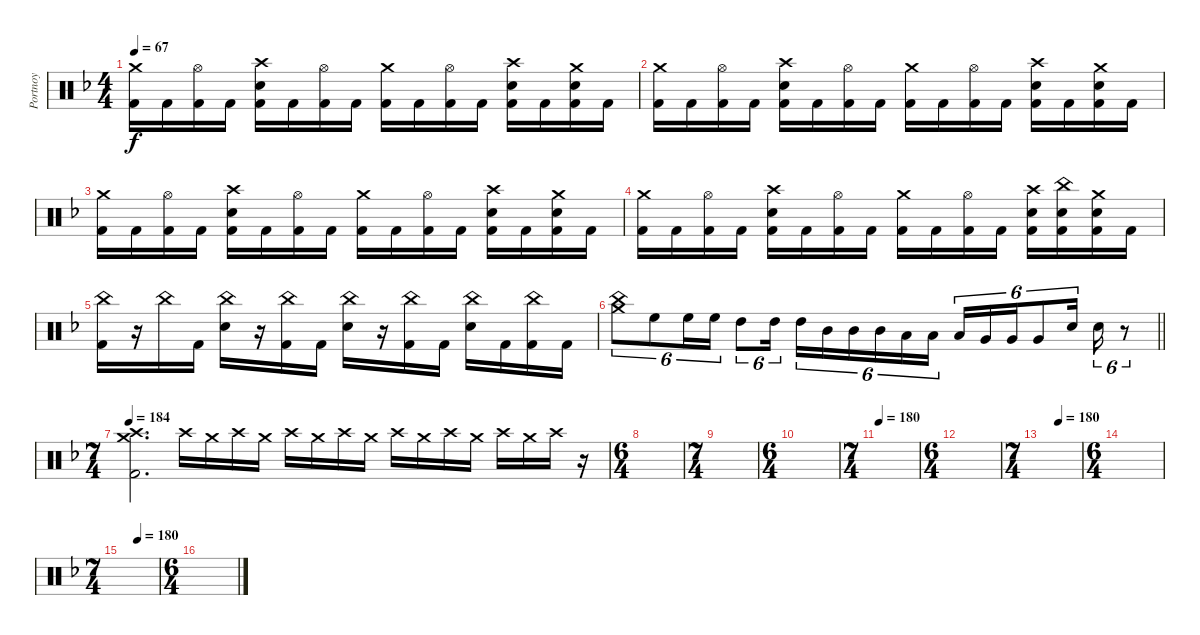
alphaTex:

\track ("Portnoy" "Portnoy") {instrument percussion}
\staff {score}
\articulation defaults
\ts (4 4)
\tempo 67
\clef neutral
\ks f
("Crash medium (hit)" "Kick (hit) 2").16{dy f} "Kick (hit) 2".16 ("Hi-Hat (open)" "Kick (hit) 2").16 "Kick (hit) 2".16 ("Crash high (hit)" "Electric Snare (hit)" "Kick (hit) 2").16 "Kick (hit) 2".16 ("Hi-Hat (open)" "Kick (hit) 2").16 "Kick (hit) 2".16 ("Crash medium (hit)" "Kick (hit) 2").16 "Kick (hit) 2".16 ("Hi-Hat (open)" "Kick (hit) 2").16 "Kick (hit) 2".16 ("Crash high (hit)" "Electric Snare (hit)" "Kick (hit) 2").16 "Kick (hit) 2".16 ("Crash medium (hit)" "Electric Snare (hit)" "Kick (hit) 2").16 "Kick (hit) 2".16 |
("Crash medium (hit)" "Kick (hit) 2").16 "Kick (hit) 2".16 ("Hi-Hat (open)" "Kick (hit) 2").16 "Kick (hit) 2".16 ("Crash high (hit)" "Electric Snare (hit)" "Kick (hit) 2").16 "Kick (hit) 2".16 ("Hi-Hat (open)" "Kick (hit) 2").16 "Kick (hit) 2".16 ("Crash medium (hit)" "Kick (hit) 2").16 "Kick (hit) 2".16 ("Hi-Hat (open)" "Kick (hit) 2").16 "Kick (hit) 2".16 ("Crash high (hit)" "Electric Snare (hit)" "Kick (hit) 2").16 "Kick (hit) 2".16 ("Crash medium (hit)" "Electric Snare (hit)" "Kick (hit) 2").16 "Kick (hit) 2".16 |
("Crash medium (hit)" "Kick (hit) 2").16 "Kick (hit) 2".16 ("Hi-Hat (open)" "Kick (hit) 2").16 "Kick (hit) 2".16 ("Crash high (hit)" "Electric Snare (hit)" "Kick (hit) 2").16 "Kick (hit) 2".16 ("Hi-Hat (open)" "Kick (hit) 2").16 "Kick (hit) 2".16 ("Crash medium (hit)" "Kick (hit) 2").16 "Kick (hit) 2".16 ("Hi-Hat (open)" "Kick (hit) 2").16 "Kick (hit) 2".16 ("Crash high (hit)" "Electric Snare (hit)" "Kick (hit) 2").16 "Kick (hit) 2".16 ("Crash medium (hit)" "Electric Snare (hit)" "Kick (hit) 2").16 "Kick (hit) 2".16 |
("Crash medium (hit)" "Kick (hit) 2").16 "Kick (hit) 2".16 ("Hi-Hat (open)" "Kick (hit) 2").16 "Kick (hit) 2".16 ("Crash high (hit)" "Electric Snare (hit)" "Kick (hit) 2").16 "Kick (hit) 2".16 ("Hi-Hat (open)" "Kick (hit) 2").16 "Kick (hit) 2".16 ("Crash medium (hit)" "Kick (hit) 2").16 "Kick (hit) 2".16 ("Hi-Hat (open)" "Kick (hit) 2").16 "Kick (hit) 2".16 ("Crash high (hit)" "Electric Snare (hit)" "Kick (hit) 2").16 ("China (hit)" "Electric Snare (hit)" "Kick (hit) 2").16 ("Crash medium (hit)" "Electric Snare (hit)" "Kick (hit) 2").16 "Kick (hit) 2".16 |
("China (hit)" "Kick (hit) 2").16 r.16 "China (hit)".16 "Kick (hit) 2".16 ("China (hit)" "Electric Snare (hit)").16 r.16 ("China (hit)" "Kick (hit) 2").16 "Kick (hit) 2".16 ("China (hit)" "Electric Snare (hit)").16 r.16 ("China (hit)" "Kick (hit) 2").16 "Kick (hit) 2".16 ("China (hit)" "Electric Snare (hit)").16 "Kick (hit) 2".16 ("China (hit)" "Kick (hit) 2").16 "Kick (hit) 2".16 |
\barLineRight lightlight
("China (hit)" "Crash medium (hit)").8{tu (6 4)} "High Floor Tom (hit)".8{tu (6 4)} "High Floor Tom (hit)".16{tu (6 4)} "High Floor Tom (hit)".16{tu (6 4)} "High Tom (hit)".8{tu (6 4)} "High Tom (hit)".16{tu (6 4) beam splitsecondary} "High Tom (hit)".16{tu (6 4)} "Mid Tom (hit)".16{tu (6 4)} "Mid Tom (hit)".16{tu (6 4)} "Mid Tom (hit)".16{tu (6 4)} "Low Tom (hit)".16{tu (6 4)} "Low Tom (hit)".16{tu (6 4) beam splitsecondary} "Low Tom (hit)".16{tu (6 4)} "Very Low Tom (hit)".16{tu (6 4)} "Very Low Tom (hit)".16{tu (6 4)} "Very Low Tom (hit)".8{tu (6 4)} "Electric Snare (hit)".16{tu (6 4)} "Electric Snare (hit)".16{tu (6 4)} r.8{tu (6 4)} |
\ts (7 4)
\tempo 184
("Crash medium (hit)" "Crash high (hit)" "Kick (hit) 2").2{d} "Crash high (hit)".16{volume 3} "Crash medium (hit)".16{volume 16} "Crash high (hit)".16 "Crash medium (hit)".16 "Crash high (hit)".16 "Crash medium (hit)".16 "Crash high (hit)".16 "Crash medium (hit)".16 "Crash high (hit)".16 "Crash medium (hit)".16 "Crash high (hit)".16 "Crash medium (hit)".16 "Crash high (hit)".16 "Crash medium (hit)".16 "Crash high (hit)".16 r.16 |
\ts (6 4)
|
\ts (7 4)
|
\ts (6 4)
|
\ts (7 4)
\tempo 180
|
\ts (6 4)
|
\ts (7 4)
\tempo (180 0.42857142857142855)
|
\ts (6 4)
|
\ts (7 4)
\tempo (180 0.42857142857142855)
|
\ts (6 4)
